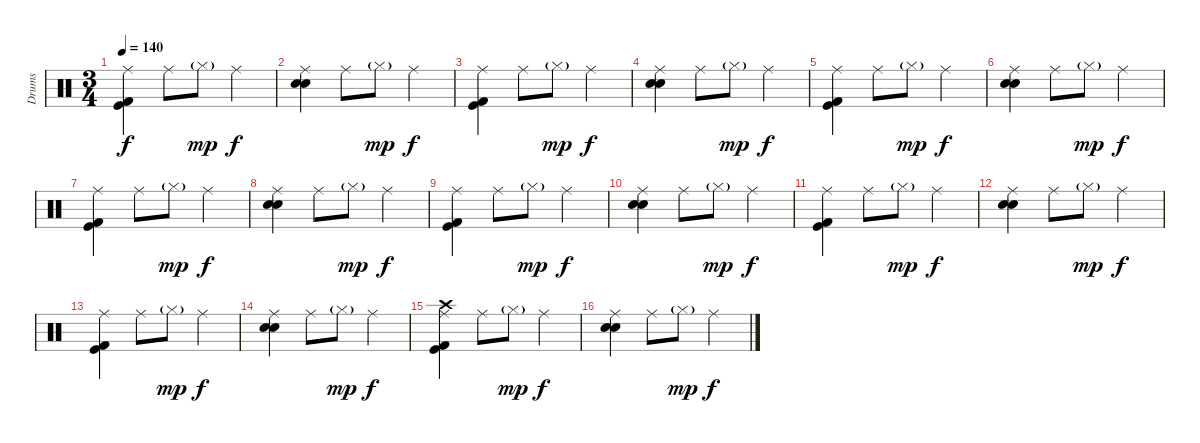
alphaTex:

\track ("Drums" "Drums") {instrument percussion}
\staff {score}
\articulation defaults
\ts (3 4)
\tempo 140
\clef neutral
\ks c
("Ride (middle)" "Kick (hit) 2" "Kick (hit)").4{dy f} "Ride (middle)".8 "Hi-Hat (closed)"{g}.8{dy mp} "Ride (middle)".4{dy f} |
("Ride (middle)" "Electric Snare (hit)" "Electric Snare (hit)").4 "Ride (middle)".8 "Hi-Hat (closed)"{g}.8{dy mp} "Ride (middle)".4{dy f} |
("Ride (middle)" "Kick (hit) 2" "Kick (hit)").4 "Ride (middle)".8 "Hi-Hat (closed)"{g}.8{dy mp} "Ride (middle)".4{dy f} |
("Ride (middle)" "Electric Snare (hit)" "Electric Snare (hit)").4 "Ride (middle)".8 "Hi-Hat (closed)"{g}.8{dy mp} "Ride (middle)".4{dy f} |
("Ride (middle)" "Kick (hit) 2" "Kick (hit)").4 "Ride (middle)".8 "Hi-Hat (closed)"{g}.8{dy mp} "Ride (middle)".4{dy f} |
("Ride (middle)" "Electric Snare (hit)" "Electric Snare (hit)").4 "Ride (middle)".8 "Hi-Hat (closed)"{g}.8{dy mp} "Ride (middle)".4{dy f} |
("Ride (middle)" "Kick (hit) 2" "Kick (hit)").4 "Ride (middle)".8 "Hi-Hat (closed)"{g}.8{dy mp} "Ride (middle)".4{dy f} |
("Ride (middle)" "Electric Snare (hit)" "Electric Snare (hit)").4 "Ride (middle)".8 "Hi-Hat (closed)"{g}.8{dy mp} "Ride (middle)".4{dy f} |
("Ride (middle)" "Kick (hit) 2" "Kick (hit)").4 "Ride (middle)".8 "Hi-Hat (closed)"{g}.8{dy mp} "Ride (middle)".4{dy f} |
("Ride (middle)" "Electric Snare (hit)" "Electric Snare (hit)").4 "Ride (middle)".8 "Hi-Hat (closed)"{g}.8{dy mp} "Ride (middle)".4{dy f} |
("Ride (middle)" "Kick (hit) 2" "Kick (hit)").4 "Ride (middle)".8 "Hi-Hat (closed)"{g}.8{dy mp} "Ride (middle)".4{dy f} |
("Ride (middle)" "Electric Snare (hit)" "Electric Snare (hit)").4 "Ride (middle)".8 "Hi-Hat (closed)"{g}.8{dy mp} "Ride (middle)".4{dy f} |
("Ride (middle)" "Kick (hit) 2" "Kick (hit)").4 "Ride (middle)".8 "Hi-Hat (closed)"{g}.8{dy mp} "Ride (middle)".4{dy f} |
("Ride (middle)" "Electric Snare (hit)" "Electric Snare (hit)").4 "Ride (middle)".8 "Hi-Hat (closed)"{g}.8{dy mp} "Ride (middle)".4{dy f} |
("Crash high (hit)" "Ride (middle)" "Kick (hit) 2" "Kick (hit)").4 "Ride (middle)".8 "Hi-Hat (closed)"{g}.8{dy mp} "Ride (middle)".4{dy f} |
("Ride (middle)" "Electric Snare (hit)" "Electric Snare (hit)").4 "Ride (middle)".8 "Hi-Hat (closed)"{g}.8{dy mp} "Ride (middle)".4{dy f}
